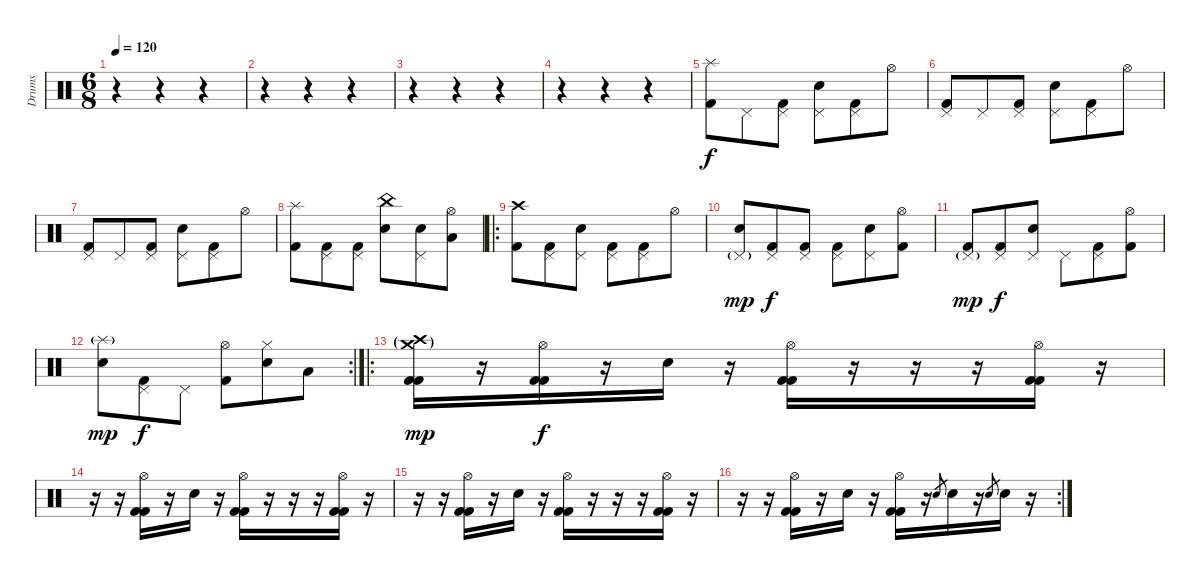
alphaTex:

\track ("Drums" "Drums") {instrument percussion}
\staff {score}
\articulation defaults
\ts (6 8)
\tempo 120
\clef neutral
\ks c
r.4{dy f} r.4 r.4 |
r.4 r.4 r.4 |
r.4 r.4 r.4 |
r.4 r.4 r.4 |
("Splash (hit)" "Kick (hit) 2").8 "Pedal Hi-Hat (hit)".8 ("Pedal Hi-Hat (hit)" "Kick (hit) 2").8 ("Pedal Hi-Hat (hit)" "Electric Snare (hit)").8 ("Pedal Hi-Hat (hit)" "Kick (hit) 2").8 "Hi-Hat (open)".8 |
("Pedal Hi-Hat (hit)" "Kick (hit) 2").8 "Pedal Hi-Hat (hit)".8 ("Pedal Hi-Hat (hit)" "Kick (hit) 2").8 ("Pedal Hi-Hat (hit)" "Electric Snare (hit)").8 ("Pedal Hi-Hat (hit)" "Kick (hit) 2").8 "Hi-Hat (open)".8 |
("Pedal Hi-Hat (hit)" "Kick (hit) 2").8 "Pedal Hi-Hat (hit)".8 ("Pedal Hi-Hat (hit)" "Kick (hit) 2").8 ("Pedal Hi-Hat (hit)" "Electric Snare (hit)").8 ("Pedal Hi-Hat (hit)" "Kick (hit) 2").8 "Hi-Hat (open)".8 |
("Splash (hit)" "Kick (hit) 2").8 ("Pedal Hi-Hat (hit)" "Kick (hit) 2").8 ("Pedal Hi-Hat (hit)" "Kick (hit) 2").8 ("China (hit)" "Electric Snare (hit)").8 ("Pedal Hi-Hat (hit)" "Electric Snare (hit)").8 ("Hi-Hat (open)" "Low Tom (hit)").8 |
\ro
("Crash high (hit)" "Kick (hit) 2").8 ("Pedal Hi-Hat (hit)" "Kick (hit) 2").8 ("Pedal Hi-Hat (hit)" "Electric Snare (hit)").8 ("Pedal Hi-Hat (hit)" "Kick (hit) 2").8 ("Pedal Hi-Hat (hit)" "Kick (hit) 2").8 "Hi-Hat (open)".8 |
("Pedal Hi-Hat (hit)"{g} "Electric Snare (hit)").8{dy mp} ("Pedal Hi-Hat (hit)" "Kick (hit) 2").8{dy f} ("Pedal Hi-Hat (hit)" "Kick (hit) 2").8 ("Pedal Hi-Hat (hit)" "Kick (hit) 2").8 ("Pedal Hi-Hat (hit)" "Electric Snare (hit)").8 ("Hi-Hat (open)" "Kick (hit) 2").8 |
("Pedal Hi-Hat (hit)"{g} "Kick (hit) 2").8{dy mp} ("Pedal Hi-Hat (hit)" "Kick (hit) 2").8{dy f} ("Pedal Hi-Hat (hit)" "Electric Snare (hit)").8 "Pedal Hi-Hat (hit)".8 ("Pedal Hi-Hat (hit)" "Kick (hit) 2").8 ("Hi-Hat (open)" "Kick (hit) 2").8 |
\rc 2
("Splash (hit)"{g} "Electric Snare (hit)").8{dy mp} ("Pedal Hi-Hat (hit)" "Kick (hit) 2").8{dy f} "Pedal Hi-Hat (hit)".8 ("Hi-Hat (open)" "Kick (hit) 2").8 ("Hi-Hat (closed)" "Electric Snare (hit)").8 "Low Tom (hit)".8 |
\ro
("Crash medium (hit)"{g} "Crash high (hit)"{g} "Kick (hit) 2" "Kick (hit) 2").16{dy mp} r.16 ("Hi-Hat (open)" "Kick (hit) 2" "Kick (hit) 2").16{dy f} r.16 "Electric Snare (hit)".16 r.16 ("Hi-Hat (open)" "Kick (hit) 2" "Kick (hit) 2").16 r.16 r.16 r.16 ("Hi-Hat (open)" "Kick (hit) 2" "Kick (hit) 2").16 r.16 |
r.16 r.16 ("Hi-Hat (open)" "Kick (hit) 2" "Kick (hit) 2").16 r.16 "Electric Snare (hit)".16 r.16 ("Hi-Hat (open)" "Kick (hit) 2" "Kick (hit) 2").16 r.16 r.16 r.16 ("Hi-Hat (open)" "Kick (hit) 2" "Kick (hit) 2").16 r.16 |
r.16 r.16 ("Hi-Hat (open)" "Kick (hit) 2" "Kick (hit) 2").16 r.16 "Electric Snare (hit)".16 r.16 ("Hi-Hat (open)" "Kick (hit) 2" "Kick (hit) 2").16 r.16 r.16 r.16 ("Hi-Hat (open)" "Kick (hit) 2" "Kick (hit) 2").16 r.16 |
\rc 2
r.16 r.16 ("Hi-Hat (open)" "Kick (hit) 2" "Kick (hit) 2").16 r.16 "Electric Snare (hit)".16 r.16 ("Hi-Hat (open)" "Kick (hit) 2" "Kick (hit) 2").16 r.16 "Electric Snare (hit)".8{gr} "Electric Snare (hit)".16 r.16 "Electric Snare (hit)".8{gr} "Electric Snare (hit)".16 r.16
